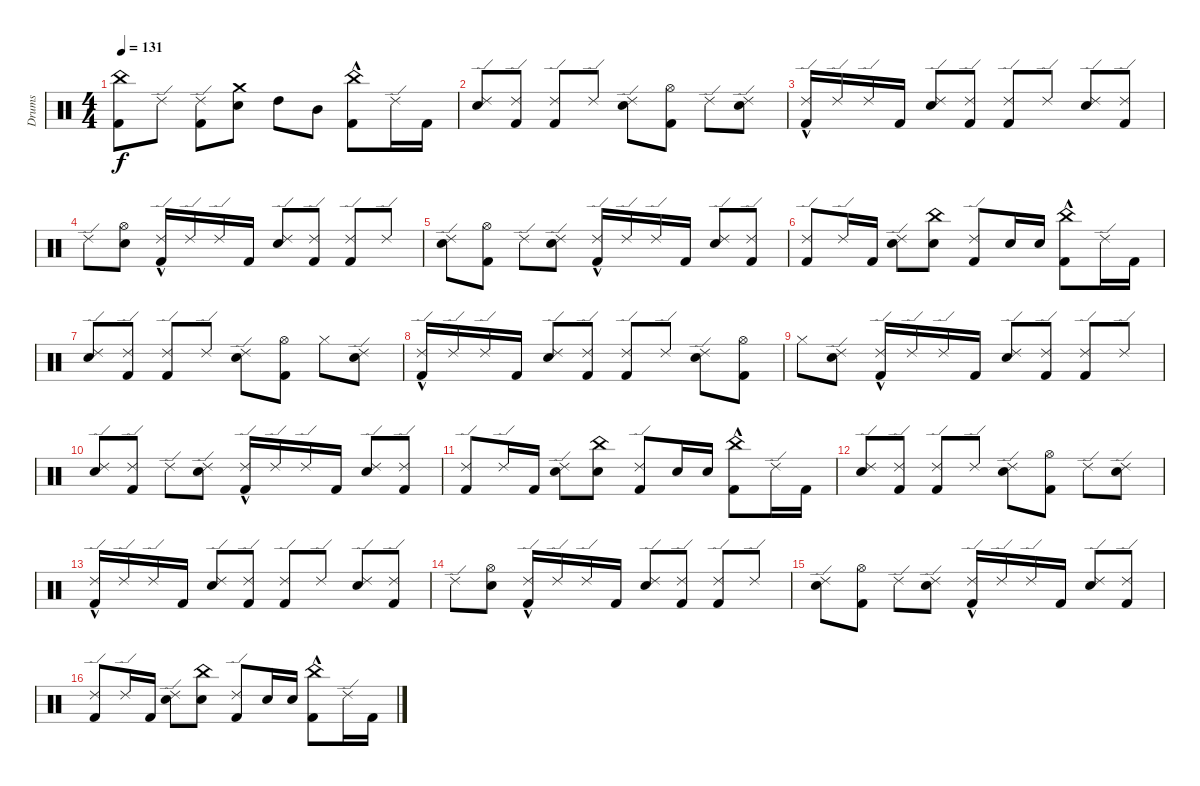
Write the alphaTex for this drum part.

\track ("Drums" "Drums") {instrument percussion}
\staff {score}
\articulation defaults
\ts (4 4)
\tempo 131
\clef neutral
\ks c
("China (hit)" "Kick (hit) 2").8{dy f} "Ride (edge) 2".8 ("Ride (edge) 2" "Kick (hit) 2").8 ("Crash medium (hit)" "Electric Snare (hit)").8 "High Tom (hit)".8 "Mid Tom (hit)".8 ("Kick (hit) 2"{hac} "China (hit)").8 "Ride (edge) 2".16 "Kick (hit) 2".16 |
("Electric Snare (hit)" "Ride (edge) 2").8 ("Kick (hit) 2" "Ride (edge) 2").8 ("Kick (hit) 2" "Ride (edge) 2").8 "Ride (edge) 2".8 ("Electric Snare (hit)" "Ride (edge) 2").8 ("Hi-Hat (open)" "Kick (hit) 2").8 "Ride (edge) 2".8 ("Electric Snare (hit)" "Ride (edge) 2").8 |
("Ride (edge) 2" "Kick (hit) 2"{hac}).16 "Ride (edge) 2".16 "Ride (edge) 2".16 "Kick (hit) 2".16 ("Electric Snare (hit)" "Ride (edge) 2").8 ("Kick (hit) 2" "Ride (edge) 2").8 ("Kick (hit) 2" "Ride (edge) 2").8 "Ride (edge) 2".8 ("Electric Snare (hit)" "Ride (edge) 2").8 ("Kick (hit) 2" "Ride (edge) 2").8 |
"Ride (edge) 2".8 ("Hi-Hat (open)" "Electric Snare (hit)").8 ("Ride (edge) 2" "Kick (hit) 2"{hac}).16 "Ride (edge) 2".16 "Ride (edge) 2".16 "Kick (hit) 2".16 ("Electric Snare (hit)" "Ride (edge) 2").8 ("Kick (hit) 2" "Ride (edge) 2").8 ("Kick (hit) 2" "Ride (edge) 2").8 "Ride (edge) 2".8 |
("Electric Snare (hit)" "Ride (edge) 2").8 ("Hi-Hat (open)" "Kick (hit) 2").8 "Ride (edge) 2".8 ("Electric Snare (hit)" "Ride (edge) 2").8 ("Ride (edge) 2" "Kick (hit) 2"{hac}).16 "Ride (edge) 2".16 "Ride (edge) 2".16 "Kick (hit) 2".16 ("Electric Snare (hit)" "Ride (edge) 2").8 ("Kick (hit) 2" "Ride (edge) 2").8 |
("Kick (hit) 2" "Ride (edge) 2").8 "Ride (edge) 2".16 "Kick (hit) 2".16 ("Electric Snare (hit)" "Ride (edge) 2").8 ("China (hit)" "Electric Snare (hit)").8 ("Ride (edge) 2" "Kick (hit) 2").8 "Electric Snare (hit)".16 "Electric Snare (hit)".16 ("Kick (hit) 2"{hac} "China (hit)").8 "Ride (edge) 2".16 "Kick (hit) 2".16 |
("Electric Snare (hit)" "Ride (edge) 2").8 ("Kick (hit) 2" "Ride (edge) 2").8 ("Kick (hit) 2" "Ride (edge) 2").8 "Ride (edge) 2".8 ("Electric Snare (hit)" "Ride (edge) 2").8 ("Hi-Hat (open)" "Kick (hit) 2").8 "Hi-Hat (closed)".8 ("Electric Snare (hit)" "Ride (edge) 2").8 |
("Ride (edge) 2" "Kick (hit) 2"{hac}).16 "Ride (edge) 2".16 "Ride (edge) 2".16 "Kick (hit) 2".16 ("Electric Snare (hit)" "Ride (edge) 2").8 ("Kick (hit) 2" "Ride (edge) 2").8 ("Kick (hit) 2" "Ride (edge) 2").8 "Ride (edge) 2".8 ("Electric Snare (hit)" "Ride (edge) 2").8 ("Hi-Hat (open)" "Kick (hit) 2").8 |
"Hi-Hat (closed)".8 ("Electric Snare (hit)" "Ride (edge) 2").8 ("Ride (edge) 2" "Kick (hit) 2"{hac}).16 "Ride (edge) 2".16 "Ride (edge) 2".16 "Kick (hit) 2".16 ("Electric Snare (hit)" "Ride (edge) 2").8 ("Kick (hit) 2" "Ride (edge) 2").8 ("Kick (hit) 2" "Ride (edge) 2").8 "Ride (edge) 2".8 |
("Electric Snare (hit)" "Ride (edge) 2").8 ("Kick (hit) 2" "Ride (edge) 2").8 "Ride (edge) 2".8 ("Electric Snare (hit)" "Ride (edge) 2").8 ("Ride (edge) 2" "Kick (hit) 2"{hac}).16 "Ride (edge) 2".16 "Ride (edge) 2".16 "Kick (hit) 2".16 ("Electric Snare (hit)" "Ride (edge) 2").8 ("Kick (hit) 2" "Ride (edge) 2").8 |
("Kick (hit) 2" "Ride (edge) 2").8 "Ride (edge) 2".16 "Kick (hit) 2".16 ("Electric Snare (hit)" "Ride (edge) 2").8 ("China (hit)" "Electric Snare (hit)").8 ("Ride (edge) 2" "Kick (hit) 2").8 "Electric Snare (hit)".16 "Electric Snare (hit)".16 ("Kick (hit) 2"{hac} "China (hit)").8 "Ride (edge) 2".16 "Kick (hit) 2".16 |
("Electric Snare (hit)" "Ride (edge) 2").8 ("Kick (hit) 2" "Ride (edge) 2").8 ("Kick (hit) 2" "Ride (edge) 2").8 "Ride (edge) 2".8 ("Electric Snare (hit)" "Ride (edge) 2").8 ("Hi-Hat (open)" "Kick (hit) 2").8 "Ride (edge) 2".8 ("Electric Snare (hit)" "Ride (edge) 2").8 |
("Ride (edge) 2" "Kick (hit) 2"{hac}).16 "Ride (edge) 2".16 "Ride (edge) 2".16 "Kick (hit) 2".16 ("Electric Snare (hit)" "Ride (edge) 2").8 ("Kick (hit) 2" "Ride (edge) 2").8 ("Kick (hit) 2" "Ride (edge) 2").8 "Ride (edge) 2".8 ("Electric Snare (hit)" "Ride (edge) 2").8 ("Kick (hit) 2" "Ride (edge) 2").8 |
"Ride (edge) 2".8 ("Hi-Hat (open)" "Electric Snare (hit)").8 ("Ride (edge) 2" "Kick (hit) 2"{hac}).16 "Ride (edge) 2".16 "Ride (edge) 2".16 "Kick (hit) 2".16 ("Electric Snare (hit)" "Ride (edge) 2").8 ("Kick (hit) 2" "Ride (edge) 2").8 ("Kick (hit) 2" "Ride (edge) 2").8 "Ride (edge) 2".8 |
("Electric Snare (hit)" "Ride (edge) 2").8 ("Hi-Hat (open)" "Kick (hit) 2").8 "Ride (edge) 2".8 ("Electric Snare (hit)" "Ride (edge) 2").8 ("Ride (edge) 2" "Kick (hit) 2"{hac}).16 "Ride (edge) 2".16 "Ride (edge) 2".16 "Kick (hit) 2".16 ("Electric Snare (hit)" "Ride (edge) 2").8 ("Kick (hit) 2" "Ride (edge) 2").8 |
("Kick (hit) 2" "Ride (edge) 2").8 "Ride (edge) 2".16 "Kick (hit) 2".16 ("Electric Snare (hit)" "Ride (edge) 2").8 ("China (hit)" "Electric Snare (hit)").8 ("Ride (edge) 2" "Kick (hit) 2").8 "Electric Snare (hit)".16 "Electric Snare (hit)".16 ("Kick (hit) 2"{hac} "China (hit)").8 "Ride (edge) 2".16 "Kick (hit) 2".16
